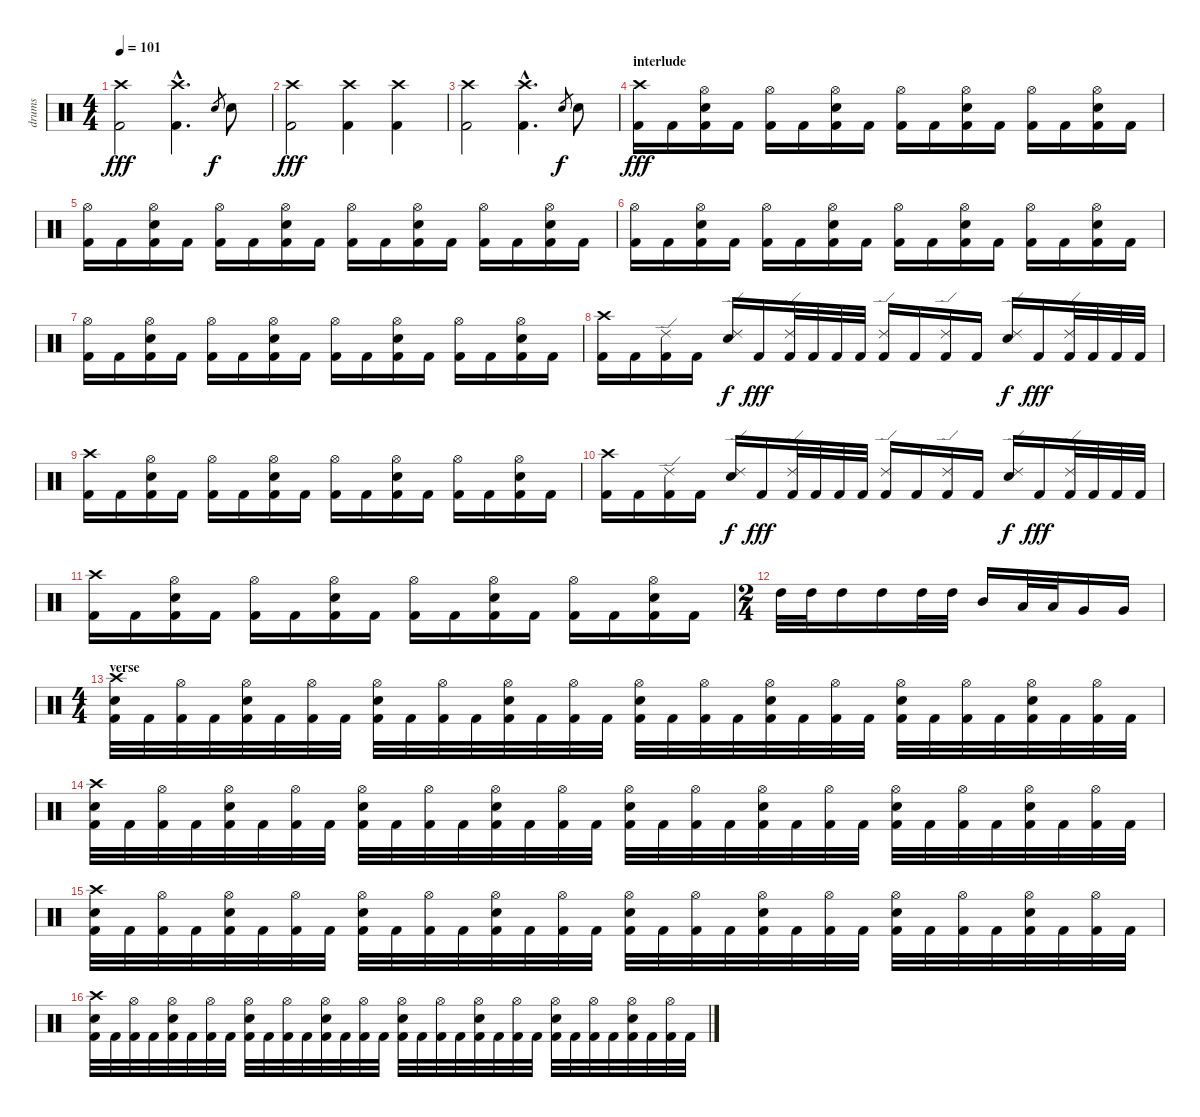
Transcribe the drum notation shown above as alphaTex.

\track ("drums" "drums") {instrument percussion}
\staff {score}
\articulation defaults
\ts (4 4)
\tempo 101
\clef neutral
\ks c
("Crash high (hit)" "Kick (hit) 2").2{dy fff} ("Crash high (hit)"{hac} "Kick (hit) 2"{hac}).4{d} "Snare (hit) 2".8{gr dy f} "Snare (hit) 2".8 |
("Crash high (hit)" "Kick (hit) 2").2{dy fff} ("Crash high (hit)" "Kick (hit) 2").4 ("Crash high (hit)" "Kick (hit) 2").4 |
("Crash high (hit)" "Kick (hit) 2").2 ("Crash high (hit)"{hac} "Kick (hit) 2"{hac}).4{d} "Snare (hit) 2".8{gr dy f} "Snare (hit) 2".8 |
\section ("" "interlude")
("Crash high (hit)" "Kick (hit) 2").16{dy fff} "Kick (hit) 2".16 ("Hi-Hat (open)" "Snare (hit) 2" "Kick (hit) 2").16 "Kick (hit) 2".16 ("Hi-Hat (open)" "Kick (hit) 2").16 "Kick (hit) 2".16 ("Hi-Hat (open)" "Snare (hit) 2" "Kick (hit) 2").16 "Kick (hit) 2".16 ("Hi-Hat (open)" "Kick (hit) 2").16 "Kick (hit) 2".16 ("Hi-Hat (open)" "Snare (hit) 2" "Kick (hit) 2").16 "Kick (hit) 2".16 ("Hi-Hat (open)" "Kick (hit) 2").16 "Kick (hit) 2".16 ("Hi-Hat (open)" "Snare (hit) 2" "Kick (hit) 2").16 "Kick (hit) 2".16 |
("Hi-Hat (open)" "Kick (hit) 2").16 "Kick (hit) 2".16 ("Hi-Hat (open)" "Snare (hit) 2" "Kick (hit) 2").16 "Kick (hit) 2".16 ("Hi-Hat (open)" "Kick (hit) 2").16 "Kick (hit) 2".16 ("Hi-Hat (open)" "Snare (hit) 2" "Kick (hit) 2").16 "Kick (hit) 2".16 ("Hi-Hat (open)" "Kick (hit) 2").16 "Kick (hit) 2".16 ("Hi-Hat (open)" "Snare (hit) 2" "Kick (hit) 2").16 "Kick (hit) 2".16 ("Hi-Hat (open)" "Kick (hit) 2").16 "Kick (hit) 2".16 ("Hi-Hat (open)" "Snare (hit) 2" "Kick (hit) 2").16 "Kick (hit) 2".16 |
("Hi-Hat (open)" "Kick (hit) 2").16 "Kick (hit) 2".16 ("Hi-Hat (open)" "Snare (hit) 2" "Kick (hit) 2").16 "Kick (hit) 2".16 ("Hi-Hat (open)" "Kick (hit) 2").16 "Kick (hit) 2".16 ("Hi-Hat (open)" "Snare (hit) 2" "Kick (hit) 2").16 "Kick (hit) 2".16 ("Hi-Hat (open)" "Kick (hit) 2").16 "Kick (hit) 2".16 ("Hi-Hat (open)" "Snare (hit) 2" "Kick (hit) 2").16 "Kick (hit) 2".16 ("Hi-Hat (open)" "Kick (hit) 2").16 "Kick (hit) 2".16 ("Hi-Hat (open)" "Snare (hit) 2" "Kick (hit) 2").16 "Kick (hit) 2".16 |
("Hi-Hat (open)" "Kick (hit) 2").16 "Kick (hit) 2".16 ("Hi-Hat (open)" "Snare (hit) 2" "Kick (hit) 2").16 "Kick (hit) 2".16 ("Hi-Hat (open)" "Kick (hit) 2").16 "Kick (hit) 2".16 ("Hi-Hat (open)" "Snare (hit) 2" "Kick (hit) 2").16 "Kick (hit) 2".16 ("Hi-Hat (open)" "Kick (hit) 2").16 "Kick (hit) 2".16 ("Hi-Hat (open)" "Snare (hit) 2" "Kick (hit) 2").16 "Kick (hit) 2".16 ("Hi-Hat (open)" "Kick (hit) 2").16 "Kick (hit) 2".16 ("Hi-Hat (open)" "Snare (hit) 2" "Kick (hit) 2").16 "Kick (hit) 2".16 |
("Crash high (hit)" "Kick (hit) 2").16 "Kick (hit) 2".16 ("Ride (edge) 2" "Kick (hit) 2").16 "Kick (hit) 2".16 ("Ride (edge) 2" "Snare (hit) 2").16{dy f} "Kick (hit) 2".16{dy fff} ("Ride (edge) 2" "Kick (hit) 2").32 "Kick (hit) 2".32 "Kick (hit) 2".32 "Kick (hit) 2".32 ("Ride (edge) 2" "Kick (hit) 2").16 "Kick (hit) 2".16 ("Ride (edge) 2" "Kick (hit) 2").16 "Kick (hit) 2".16 ("Ride (edge) 2" "Snare (hit) 2").16{dy f} "Kick (hit) 2".16{dy fff} ("Ride (edge) 2" "Kick (hit) 2").32 "Kick (hit) 2".32 "Kick (hit) 2".32 "Kick (hit) 2".32 |
("Crash high (hit)" "Kick (hit) 2").16 "Kick (hit) 2".16 ("Hi-Hat (open)" "Snare (hit) 2" "Kick (hit) 2").16 "Kick (hit) 2".16 ("Hi-Hat (open)" "Kick (hit) 2").16 "Kick (hit) 2".16 ("Hi-Hat (open)" "Snare (hit) 2" "Kick (hit) 2").16 "Kick (hit) 2".16 ("Hi-Hat (open)" "Kick (hit) 2").16 "Kick (hit) 2".16 ("Hi-Hat (open)" "Snare (hit) 2" "Kick (hit) 2").16 "Kick (hit) 2".16 ("Hi-Hat (open)" "Kick (hit) 2").16 "Kick (hit) 2".16 ("Hi-Hat (open)" "Snare (hit) 2" "Kick (hit) 2").16 "Kick (hit) 2".16 |
("Crash high (hit)" "Kick (hit) 2").16 "Kick (hit) 2".16 ("Ride (edge) 2" "Kick (hit) 2").16 "Kick (hit) 2".16 ("Ride (edge) 2" "Snare (hit) 2").16{dy f} "Kick (hit) 2".16{dy fff} ("Ride (edge) 2" "Kick (hit) 2").32 "Kick (hit) 2".32 "Kick (hit) 2".32 "Kick (hit) 2".32 ("Ride (edge) 2" "Kick (hit) 2").16 "Kick (hit) 2".16 ("Ride (edge) 2" "Kick (hit) 2").16 "Kick (hit) 2".16 ("Ride (edge) 2" "Snare (hit) 2").16{dy f} "Kick (hit) 2".16{dy fff} ("Ride (edge) 2" "Kick (hit) 2").32 "Kick (hit) 2".32 "Kick (hit) 2".32 "Kick (hit) 2".32 |
("Crash high (hit)" "Kick (hit) 2").16 "Kick (hit) 2".16 ("Hi-Hat (open)" "Snare (hit) 2" "Kick (hit) 2").16 "Kick (hit) 2".16 ("Hi-Hat (open)" "Kick (hit) 2").16 "Kick (hit) 2".16 ("Hi-Hat (open)" "Snare (hit) 2" "Kick (hit) 2").16 "Kick (hit) 2".16 ("Hi-Hat (open)" "Kick (hit) 2").16 "Kick (hit) 2".16 ("Hi-Hat (open)" "Snare (hit) 2" "Kick (hit) 2").16 "Kick (hit) 2".16 ("Hi-Hat (open)" "Kick (hit) 2").16 "Kick (hit) 2".16 ("Hi-Hat (open)" "Snare (hit) 2" "Kick (hit) 2").16 "Kick (hit) 2".16 |
\ts (2 4)
"High Tom (hit)".32 "High Tom (hit)".32 "High Tom (hit)".16 "High Tom (hit)".16 "High Tom (hit)".32 "High Tom (hit)".32 "Mid Tom (hit)".16 "Low Tom (hit)".32 "Low Tom (hit)".32 "Very Low Tom (hit)".16 "Very Low Tom (hit)".16 |
\ts (4 4)
\section ("" "verse")
("Crash high (hit)" "Snare (hit) 2" "Kick (hit) 2").32 "Kick (hit) 2".32 ("Hi-Hat (open)" "Kick (hit) 2").32 "Kick (hit) 2".32 ("Hi-Hat (open)" "Snare (hit) 2" "Kick (hit) 2").32 "Kick (hit) 2".32 ("Hi-Hat (open)" "Kick (hit) 2").32 "Kick (hit) 2".32 ("Hi-Hat (open)" "Snare (hit) 2" "Kick (hit) 2").32 "Kick (hit) 2".32 ("Hi-Hat (open)" "Kick (hit) 2").32 "Kick (hit) 2".32 ("Hi-Hat (open)" "Snare (hit) 2" "Kick (hit) 2").32 "Kick (hit) 2".32 ("Hi-Hat (open)" "Kick (hit) 2").32 "Kick (hit) 2".32 ("Hi-Hat (open)" "Snare (hit) 2" "Kick (hit) 2").32 "Kick (hit) 2".32 ("Hi-Hat (open)" "Kick (hit) 2").32 "Kick (hit) 2".32 ("Hi-Hat (open)" "Snare (hit) 2" "Kick (hit) 2").32 "Kick (hit) 2".32 ("Hi-Hat (open)" "Kick (hit) 2").32 "Kick (hit) 2".32 ("Hi-Hat (open)" "Snare (hit) 2" "Kick (hit) 2").32 "Kick (hit) 2".32 ("Hi-Hat (open)" "Kick (hit) 2").32 "Kick (hit) 2".32 ("Hi-Hat (open)" "Snare (hit) 2" "Kick (hit) 2").32 "Kick (hit) 2".32 ("Hi-Hat (open)" "Kick (hit) 2").32 "Kick (hit) 2".32 |
("Crash high (hit)" "Snare (hit) 2" "Kick (hit) 2").32 "Kick (hit) 2".32 ("Hi-Hat (open)" "Kick (hit) 2").32 "Kick (hit) 2".32 ("Hi-Hat (open)" "Snare (hit) 2" "Kick (hit) 2").32 "Kick (hit) 2".32 ("Hi-Hat (open)" "Kick (hit) 2").32 "Kick (hit) 2".32 ("Hi-Hat (open)" "Snare (hit) 2" "Kick (hit) 2").32 "Kick (hit) 2".32 ("Hi-Hat (open)" "Kick (hit) 2").32 "Kick (hit) 2".32 ("Hi-Hat (open)" "Snare (hit) 2" "Kick (hit) 2").32 "Kick (hit) 2".32 ("Hi-Hat (open)" "Kick (hit) 2").32 "Kick (hit) 2".32 ("Hi-Hat (open)" "Snare (hit) 2" "Kick (hit) 2").32 "Kick (hit) 2".32 ("Hi-Hat (open)" "Kick (hit) 2").32 "Kick (hit) 2".32 ("Hi-Hat (open)" "Snare (hit) 2" "Kick (hit) 2").32 "Kick (hit) 2".32 ("Hi-Hat (open)" "Kick (hit) 2").32 "Kick (hit) 2".32 ("Hi-Hat (open)" "Snare (hit) 2" "Kick (hit) 2").32 "Kick (hit) 2".32 ("Hi-Hat (open)" "Kick (hit) 2").32 "Kick (hit) 2".32 ("Hi-Hat (open)" "Snare (hit) 2" "Kick (hit) 2").32 "Kick (hit) 2".32 ("Hi-Hat (open)" "Kick (hit) 2").32 "Kick (hit) 2".32 |
("Crash high (hit)" "Snare (hit) 2" "Kick (hit) 2").32 "Kick (hit) 2".32 ("Hi-Hat (open)" "Kick (hit) 2").32 "Kick (hit) 2".32 ("Hi-Hat (open)" "Snare (hit) 2" "Kick (hit) 2").32 "Kick (hit) 2".32 ("Hi-Hat (open)" "Kick (hit) 2").32 "Kick (hit) 2".32 ("Hi-Hat (open)" "Snare (hit) 2" "Kick (hit) 2").32 "Kick (hit) 2".32 ("Hi-Hat (open)" "Kick (hit) 2").32 "Kick (hit) 2".32 ("Hi-Hat (open)" "Snare (hit) 2" "Kick (hit) 2").32 "Kick (hit) 2".32 ("Hi-Hat (open)" "Kick (hit) 2").32 "Kick (hit) 2".32 ("Hi-Hat (open)" "Snare (hit) 2" "Kick (hit) 2").32 "Kick (hit) 2".32 ("Hi-Hat (open)" "Kick (hit) 2").32 "Kick (hit) 2".32 ("Hi-Hat (open)" "Snare (hit) 2" "Kick (hit) 2").32 "Kick (hit) 2".32 ("Hi-Hat (open)" "Kick (hit) 2").32 "Kick (hit) 2".32 ("Hi-Hat (open)" "Snare (hit) 2" "Kick (hit) 2").32 "Kick (hit) 2".32 ("Hi-Hat (open)" "Kick (hit) 2").32 "Kick (hit) 2".32 ("Hi-Hat (open)" "Snare (hit) 2" "Kick (hit) 2").32 "Kick (hit) 2".32 ("Hi-Hat (open)" "Kick (hit) 2").32 "Kick (hit) 2".32 |
("Crash high (hit)" "Snare (hit) 2" "Kick (hit) 2").32 "Kick (hit) 2".32 ("Hi-Hat (open)" "Kick (hit) 2").32 "Kick (hit) 2".32 ("Hi-Hat (open)" "Snare (hit) 2" "Kick (hit) 2").32 "Kick (hit) 2".32 ("Hi-Hat (open)" "Kick (hit) 2").32 "Kick (hit) 2".32 ("Hi-Hat (open)" "Snare (hit) 2" "Kick (hit) 2").32 "Kick (hit) 2".32 ("Hi-Hat (open)" "Kick (hit) 2").32 "Kick (hit) 2".32 ("Hi-Hat (open)" "Snare (hit) 2" "Kick (hit) 2").32 "Kick (hit) 2".32 ("Hi-Hat (open)" "Kick (hit) 2").32 "Kick (hit) 2".32 ("Hi-Hat (open)" "Snare (hit) 2" "Kick (hit) 2").32 "Kick (hit) 2".32 ("Hi-Hat (open)" "Kick (hit) 2").32 "Kick (hit) 2".32 ("Hi-Hat (open)" "Snare (hit) 2" "Kick (hit) 2").32 "Kick (hit) 2".32 ("Hi-Hat (open)" "Kick (hit) 2").32 "Kick (hit) 2".32 ("Hi-Hat (open)" "Snare (hit) 2" "Kick (hit) 2").32 "Kick (hit) 2".32 ("Hi-Hat (open)" "Kick (hit) 2").32 "Kick (hit) 2".32 ("Hi-Hat (open)" "Snare (hit) 2" "Kick (hit) 2").32 "Kick (hit) 2".32 ("Hi-Hat (open)" "Kick (hit) 2").32 "Kick (hit) 2".32
